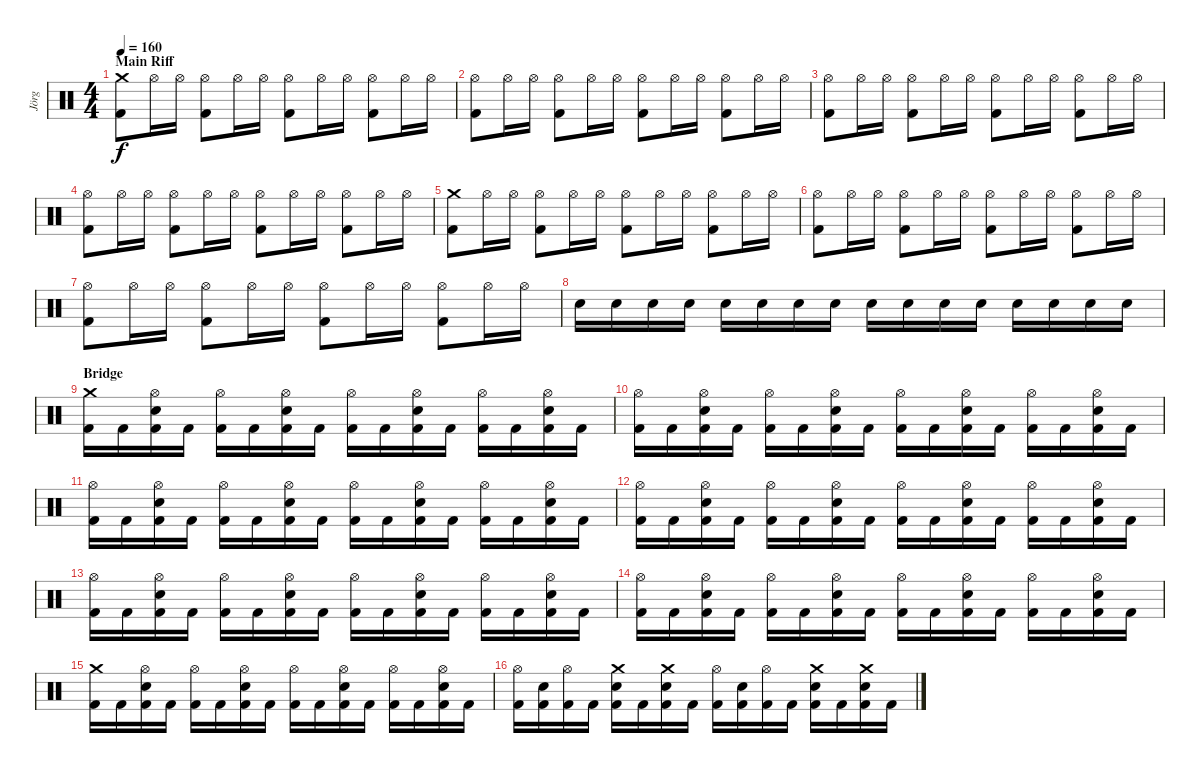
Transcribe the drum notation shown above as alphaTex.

\track ("Jörg" "Jörg") {instrument percussion}
\staff {score}
\articulation defaults
\ts (4 4)
\section ("" "Main Riff")
\tempo 160
\clef neutral
\ks c
("Crash medium (hit)" "Kick (hit) 2").8{dy f} "Hi-Hat (open)".16 "Hi-Hat (open)".16 ("Hi-Hat (open)" "Kick (hit) 2").8 "Hi-Hat (open)".16 "Hi-Hat (open)".16 ("Hi-Hat (open)" "Kick (hit) 2").8 "Hi-Hat (open)".16 "Hi-Hat (open)".16 ("Hi-Hat (open)" "Kick (hit) 2").8 "Hi-Hat (open)".16 "Hi-Hat (open)".16 |
("Hi-Hat (open)" "Kick (hit) 2").8 "Hi-Hat (open)".16 "Hi-Hat (open)".16 ("Hi-Hat (open)" "Kick (hit) 2").8 "Hi-Hat (open)".16 "Hi-Hat (open)".16 ("Hi-Hat (open)" "Kick (hit) 2").8 "Hi-Hat (open)".16 "Hi-Hat (open)".16 ("Hi-Hat (open)" "Kick (hit) 2").8 "Hi-Hat (open)".16 "Hi-Hat (open)".16 |
("Hi-Hat (open)" "Kick (hit) 2").8 "Hi-Hat (open)".16 "Hi-Hat (open)".16 ("Hi-Hat (open)" "Kick (hit) 2").8 "Hi-Hat (open)".16 "Hi-Hat (open)".16 ("Hi-Hat (open)" "Kick (hit) 2").8 "Hi-Hat (open)".16 "Hi-Hat (open)".16 ("Hi-Hat (open)" "Kick (hit) 2").8 "Hi-Hat (open)".16 "Hi-Hat (open)".16 |
("Hi-Hat (open)" "Kick (hit) 2").8 "Hi-Hat (open)".16 "Hi-Hat (open)".16 ("Hi-Hat (open)" "Kick (hit) 2").8 "Hi-Hat (open)".16 "Hi-Hat (open)".16 ("Hi-Hat (open)" "Kick (hit) 2").8 "Hi-Hat (open)".16 "Hi-Hat (open)".16 ("Hi-Hat (open)" "Kick (hit) 2").8 "Hi-Hat (open)".16 "Hi-Hat (open)".16 |
("Crash medium (hit)" "Kick (hit) 2").8 "Hi-Hat (open)".16 "Hi-Hat (open)".16 ("Hi-Hat (open)" "Kick (hit) 2").8 "Hi-Hat (open)".16 "Hi-Hat (open)".16 ("Hi-Hat (open)" "Kick (hit) 2").8 "Hi-Hat (open)".16 "Hi-Hat (open)".16 ("Hi-Hat (open)" "Kick (hit) 2").8 "Hi-Hat (open)".16 "Hi-Hat (open)".16 |
("Hi-Hat (open)" "Kick (hit) 2").8 "Hi-Hat (open)".16 "Hi-Hat (open)".16 ("Hi-Hat (open)" "Kick (hit) 2").8 "Hi-Hat (open)".16 "Hi-Hat (open)".16 ("Hi-Hat (open)" "Kick (hit) 2").8 "Hi-Hat (open)".16 "Hi-Hat (open)".16 ("Hi-Hat (open)" "Kick (hit) 2").8 "Hi-Hat (open)".16 "Hi-Hat (open)".16 |
("Hi-Hat (open)" "Kick (hit) 2").8 "Hi-Hat (open)".16 "Hi-Hat (open)".16 ("Hi-Hat (open)" "Kick (hit) 2").8 "Hi-Hat (open)".16 "Hi-Hat (open)".16 ("Hi-Hat (open)" "Kick (hit) 2").8 "Hi-Hat (open)".16 "Hi-Hat (open)".16 ("Hi-Hat (open)" "Kick (hit) 2").8 "Hi-Hat (open)".16 "Hi-Hat (open)".16 |
"Snare (hit) 2".16 "Snare (hit) 2".16 "Snare (hit) 2".16 "Snare (hit) 2".16 "Snare (hit) 2".16 "Snare (hit) 2".16 "Snare (hit) 2".16 "Snare (hit) 2".16 "Snare (hit) 2".16 "Snare (hit) 2".16 "Snare (hit) 2".16 "Snare (hit) 2".16 "Snare (hit) 2".16 "Snare (hit) 2".16 "Snare (hit) 2".16 "Snare (hit) 2".16 |
\section ("" "Bridge")
("Crash medium (hit)" "Kick (hit) 2").16 "Kick (hit) 2".16 ("Snare (hit) 2" "Hi-Hat (open)" "Kick (hit) 2").16 "Kick (hit) 2".16 ("Hi-Hat (open)" "Kick (hit) 2").16 "Kick (hit) 2".16 ("Snare (hit) 2" "Hi-Hat (open)" "Kick (hit) 2").16 "Kick (hit) 2".16 ("Hi-Hat (open)" "Kick (hit) 2").16 "Kick (hit) 2".16 ("Snare (hit) 2" "Hi-Hat (open)" "Kick (hit) 2").16 "Kick (hit) 2".16 ("Hi-Hat (open)" "Kick (hit) 2").16 "Kick (hit) 2".16 ("Snare (hit) 2" "Hi-Hat (open)" "Kick (hit) 2").16 "Kick (hit) 2".16 |
("Hi-Hat (open)" "Kick (hit) 2").16 "Kick (hit) 2".16 ("Snare (hit) 2" "Hi-Hat (open)" "Kick (hit) 2").16 "Kick (hit) 2".16 ("Hi-Hat (open)" "Kick (hit) 2").16 "Kick (hit) 2".16 ("Snare (hit) 2" "Hi-Hat (open)" "Kick (hit) 2").16 "Kick (hit) 2".16 ("Hi-Hat (open)" "Kick (hit) 2").16 "Kick (hit) 2".16 ("Snare (hit) 2" "Hi-Hat (open)" "Kick (hit) 2").16 "Kick (hit) 2".16 ("Hi-Hat (open)" "Kick (hit) 2").16 "Kick (hit) 2".16 ("Snare (hit) 2" "Hi-Hat (open)" "Kick (hit) 2").16 "Kick (hit) 2".16 |
("Hi-Hat (open)" "Kick (hit) 2").16 "Kick (hit) 2".16 ("Snare (hit) 2" "Hi-Hat (open)" "Kick (hit) 2").16 "Kick (hit) 2".16 ("Hi-Hat (open)" "Kick (hit) 2").16 "Kick (hit) 2".16 ("Snare (hit) 2" "Hi-Hat (open)" "Kick (hit) 2").16 "Kick (hit) 2".16 ("Hi-Hat (open)" "Kick (hit) 2").16 "Kick (hit) 2".16 ("Snare (hit) 2" "Hi-Hat (open)" "Kick (hit) 2").16 "Kick (hit) 2".16 ("Hi-Hat (open)" "Kick (hit) 2").16 "Kick (hit) 2".16 ("Snare (hit) 2" "Hi-Hat (open)" "Kick (hit) 2").16 "Kick (hit) 2".16 |
("Hi-Hat (open)" "Kick (hit) 2").16 "Kick (hit) 2".16 ("Snare (hit) 2" "Hi-Hat (open)" "Kick (hit) 2").16 "Kick (hit) 2".16 ("Hi-Hat (open)" "Kick (hit) 2").16 "Kick (hit) 2".16 ("Snare (hit) 2" "Hi-Hat (open)" "Kick (hit) 2").16 "Kick (hit) 2".16 ("Hi-Hat (open)" "Kick (hit) 2").16 "Kick (hit) 2".16 ("Snare (hit) 2" "Hi-Hat (open)" "Kick (hit) 2").16 "Kick (hit) 2".16 ("Hi-Hat (open)" "Kick (hit) 2").16 "Kick (hit) 2".16 ("Snare (hit) 2" "Hi-Hat (open)" "Kick (hit) 2").16 "Kick (hit) 2".16 |
("Hi-Hat (open)" "Kick (hit) 2").16 "Kick (hit) 2".16 ("Snare (hit) 2" "Hi-Hat (open)" "Kick (hit) 2").16 "Kick (hit) 2".16 ("Hi-Hat (open)" "Kick (hit) 2").16 "Kick (hit) 2".16 ("Snare (hit) 2" "Hi-Hat (open)" "Kick (hit) 2").16 "Kick (hit) 2".16 ("Hi-Hat (open)" "Kick (hit) 2").16 "Kick (hit) 2".16 ("Snare (hit) 2" "Hi-Hat (open)" "Kick (hit) 2").16 "Kick (hit) 2".16 ("Hi-Hat (open)" "Kick (hit) 2").16 "Kick (hit) 2".16 ("Snare (hit) 2" "Hi-Hat (open)" "Kick (hit) 2").16 "Kick (hit) 2".16 |
("Hi-Hat (open)" "Kick (hit) 2").16 "Kick (hit) 2".16 ("Snare (hit) 2" "Hi-Hat (open)" "Kick (hit) 2").16 "Kick (hit) 2".16 ("Hi-Hat (open)" "Kick (hit) 2").16 "Kick (hit) 2".16 ("Snare (hit) 2" "Hi-Hat (open)" "Kick (hit) 2").16 "Kick (hit) 2".16 ("Hi-Hat (open)" "Kick (hit) 2").16 "Kick (hit) 2".16 ("Snare (hit) 2" "Hi-Hat (open)" "Kick (hit) 2").16 "Kick (hit) 2".16 ("Hi-Hat (open)" "Kick (hit) 2").16 "Kick (hit) 2".16 ("Snare (hit) 2" "Hi-Hat (open)" "Kick (hit) 2").16 "Kick (hit) 2".16 |
("Crash medium (hit)" "Kick (hit) 2").16 "Kick (hit) 2".16 ("Snare (hit) 2" "Hi-Hat (open)" "Kick (hit) 2").16 "Kick (hit) 2".16 ("Hi-Hat (open)" "Kick (hit) 2").16 "Kick (hit) 2".16 ("Snare (hit) 2" "Hi-Hat (open)" "Kick (hit) 2").16 "Kick (hit) 2".16 ("Hi-Hat (open)" "Kick (hit) 2").16 "Kick (hit) 2".16 ("Snare (hit) 2" "Hi-Hat (open)" "Kick (hit) 2").16 "Kick (hit) 2".16 ("Hi-Hat (open)" "Kick (hit) 2").16 "Kick (hit) 2".16 ("Snare (hit) 2" "Hi-Hat (open)" "Kick (hit) 2").16 "Kick (hit) 2".16 |
("Hi-Hat (open)" "Kick (hit) 2").16 ("Snare (hit) 2" "Kick (hit) 2").16 ("Hi-Hat (open)" "Kick (hit) 2").16 "Kick (hit) 2".16 ("Crash medium (hit)" "Snare (hit) 2" "Kick (hit) 2").16 "Kick (hit) 2".16 ("Crash medium (hit)" "Snare (hit) 2" "Kick (hit) 2").16 "Kick (hit) 2".16 ("Hi-Hat (open)" "Kick (hit) 2").16 ("Snare (hit) 2" "Kick (hit) 2").16 ("Hi-Hat (open)" "Kick (hit) 2").16 "Kick (hit) 2".16 ("Crash medium (hit)" "Snare (hit) 2" "Kick (hit) 2").16 "Kick (hit) 2".16 ("Crash medium (hit)" "Snare (hit) 2" "Kick (hit) 2").16 "Kick (hit) 2".16
